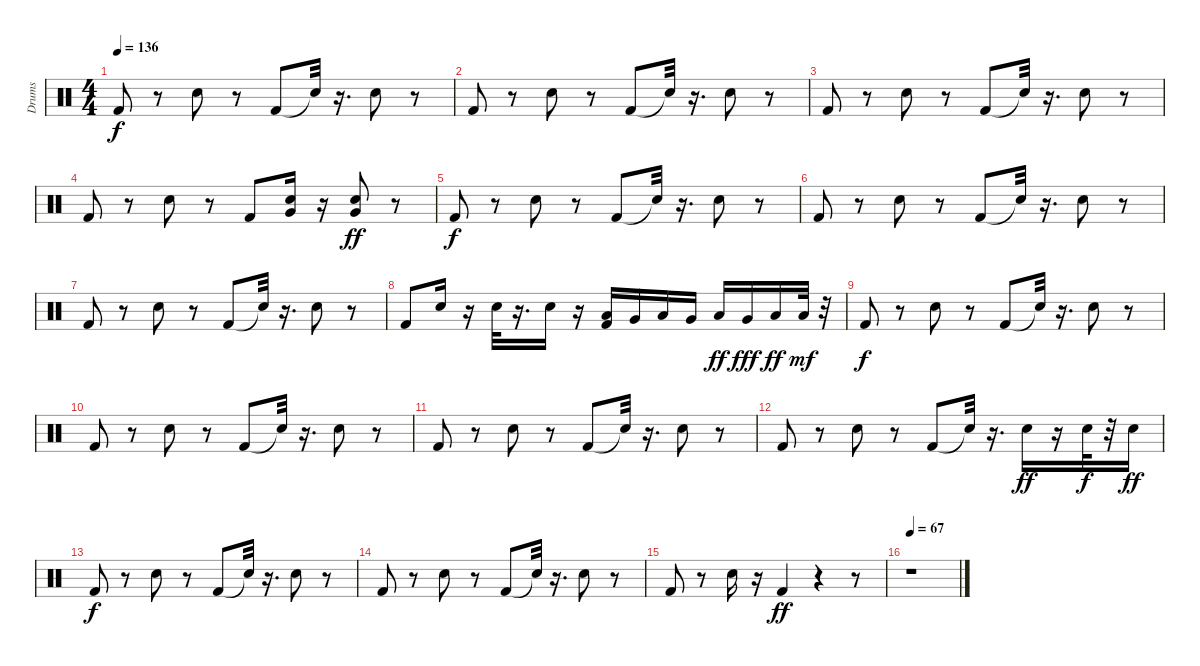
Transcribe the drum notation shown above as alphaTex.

\track ("Drums" "Drums") {instrument percussion}
\staff {score}
\articulation defaults
\ts (4 4)
\tempo 136
\clef neutral
\ks c "Kick (hit) 2".8{dy f}
r.8 "Electric Snare (hit)".8 r.8 "Kick (hit) 2".8 "Snare (hit)"{t}.32 r.16{d} "Electric Snare (hit)".8 r.8 |
"Kick (hit) 2".8 r.8 "Electric Snare (hit)".8 r.8 "Kick (hit) 2".8 "Snare (hit)"{t}.32 r.16{d} "Electric Snare (hit)".8 r.8 |
"Kick (hit) 2".8 r.8 "Electric Snare (hit)".8 r.8 "Kick (hit) 2".8 "Snare (hit)"{t}.32 r.16{d} "Electric Snare (hit)".8 r.8 |
"Kick (hit) 2".8 r.8 "Electric Snare (hit)".8 r.8 "Kick (hit) 2".8 ("Very Low Tom (hit)" "Electric Snare (hit)").16 r.16 ("Very Low Tom (hit)" "Electric Snare (hit)").8{dy ff} r.8 |
"Kick (hit) 2".8{dy f} r.8 "Electric Snare (hit)".8 r.8 "Kick (hit) 2".8 "Snare (hit)"{t}.32 r.16{d} "Electric Snare (hit)".8 r.8 |
"Kick (hit) 2".8 r.8 "Electric Snare (hit)".8 r.8 "Kick (hit) 2".8 "Snare (hit)"{t}.32 r.16{d} "Electric Snare (hit)".8 r.8 |
"Kick (hit) 2".8 r.8 "Electric Snare (hit)".8 r.8 "Kick (hit) 2".8 "Snare (hit)"{t}.32 r.16{d} "Electric Snare (hit)".8 r.8 |
"Kick (hit) 2".8 "Electric Snare (hit)".16 r.16 "Electric Snare (hit)".32 r.16{d} "Electric Snare (hit)".16 r.16 ("Kick (hit) 2" "Low Tom (hit)").16 "Very Low Tom (hit)".16 "Low Tom (hit)".16 "Very Low Tom (hit)".16 "Low Tom (hit)".16{dy ff} "Very Low Tom (hit)".16{dy fff} "Low Tom (hit)".16{dy ff} "Low Floor Tom (hit)".32{dy mf} r.32 |
"Kick (hit) 2".8{dy f} r.8 "Electric Snare (hit)".8 r.8 "Kick (hit) 2".8 "Snare (hit)"{t}.32 r.16{d} "Electric Snare (hit)".8 r.8 |
"Kick (hit) 2".8 r.8 "Electric Snare (hit)".8 r.8 "Kick (hit) 2".8 "Snare (hit)"{t}.32 r.16{d} "Electric Snare (hit)".8 r.8 |
"Kick (hit) 2".8 r.8 "Electric Snare (hit)".8 r.8 "Kick (hit) 2".8 "Snare (hit)"{t}.32 r.16{d} "Electric Snare (hit)".8 r.8 |
"Kick (hit) 2".8 r.8 "Electric Snare (hit)".8 r.8 "Kick (hit) 2".8 "Snare (hit)"{t}.32 r.16{d} "Electric Snare (hit)".16{dy ff} r.16 "Electric Snare (hit)".32{dy f} r.32 "Electric Snare (hit)".16{dy ff} |
"Kick (hit) 2".8{dy f} r.8 "Electric Snare (hit)".8 r.8 "Kick (hit) 2".8 "Snare (hit)"{t}.32 r.16{d} "Electric Snare (hit)".8 r.8 |
"Kick (hit) 2".8 r.8 "Electric Snare (hit)".8 r.8 "Kick (hit) 2".8 "Snare (hit)"{t}.32 r.16{d} "Electric Snare (hit)".8 r.8 |
"Kick (hit) 2".8 r.8 "Electric Snare (hit)".16 r.16 "Kick (hit) 2".4{dy ff} r.4 r.8 |
\tempo 67
r.1
